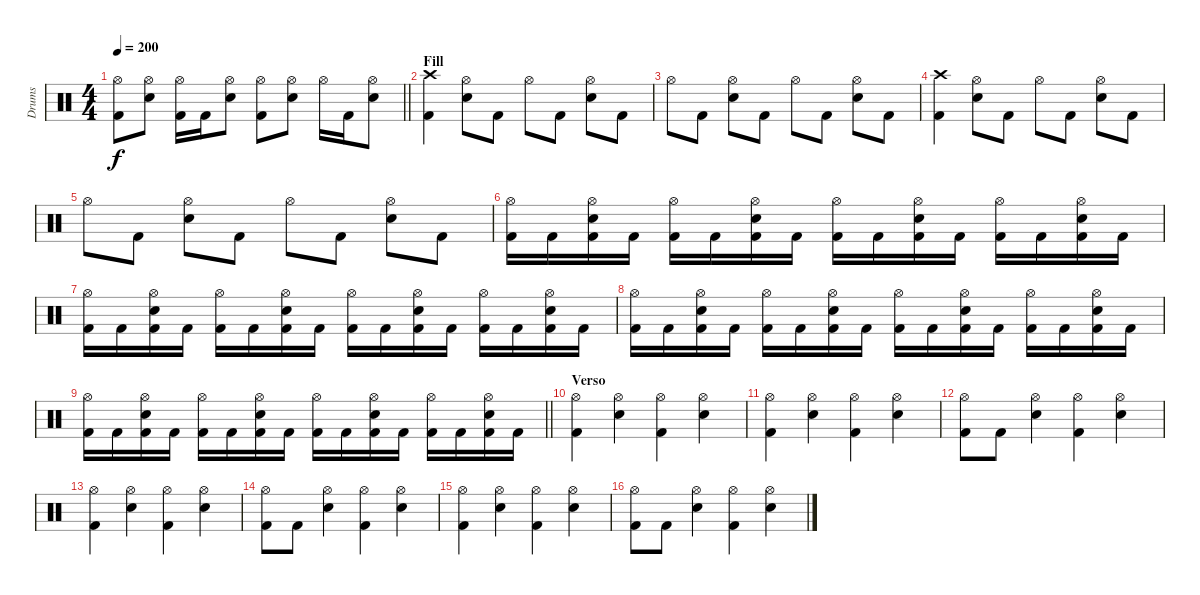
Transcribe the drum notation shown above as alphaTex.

\track ("Drums" "Drums") {instrument percussion}
\staff {score}
\articulation defaults
\ts (4 4)
\tempo 200
\clef neutral
\barLineRight lightlight
\ks c
("Hi-Hat (open)" "Kick (hit) 2").8{dy f} ("Hi-Hat (open)" "Electric Snare (hit)").8 ("Hi-Hat (open)" "Kick (hit) 2").16 "Kick (hit) 2".16 ("Hi-Hat (open)" "Electric Snare (hit)").8 ("Hi-Hat (open)" "Kick (hit) 2").8 ("Hi-Hat (open)" "Electric Snare (hit)").8 "Hi-Hat (open)".16 "Kick (hit) 2".16 ("Hi-Hat (open)" "Electric Snare (hit)").8 |
\section ("" "Fill")
("Crash high (hit)" "Kick (hit) 2").4 ("Hi-Hat (open)" "Electric Snare (hit)").8 "Kick (hit) 2".8 "Hi-Hat (open)".8 "Kick (hit) 2".8 ("Hi-Hat (open)" "Electric Snare (hit)").8 "Kick (hit) 2".8 |
"Hi-Hat (open)".8 "Kick (hit) 2".8 ("Hi-Hat (open)" "Electric Snare (hit)").8 "Kick (hit) 2".8 "Hi-Hat (open)".8 "Kick (hit) 2".8 ("Hi-Hat (open)" "Electric Snare (hit)").8 "Kick (hit) 2".8 |
("Crash high (hit)" "Kick (hit) 2").4 ("Hi-Hat (open)" "Electric Snare (hit)").8 "Kick (hit) 2".8 "Hi-Hat (open)".8 "Kick (hit) 2".8 ("Hi-Hat (open)" "Electric Snare (hit)").8 "Kick (hit) 2".8 |
"Hi-Hat (open)".8 "Kick (hit) 2".8 ("Hi-Hat (open)" "Electric Snare (hit)").8 "Kick (hit) 2".8 "Hi-Hat (open)".8 "Kick (hit) 2".8 ("Hi-Hat (open)" "Electric Snare (hit)").8 "Kick (hit) 2".8 |
("Hi-Hat (open)" "Kick (hit) 2").16 "Kick (hit) 2".16 ("Hi-Hat (open)" "Electric Snare (hit)" "Kick (hit) 2").16 "Kick (hit) 2".16 ("Hi-Hat (open)" "Kick (hit) 2").16 "Kick (hit) 2".16 ("Hi-Hat (open)" "Electric Snare (hit)" "Kick (hit) 2").16 "Kick (hit) 2".16 ("Hi-Hat (open)" "Kick (hit) 2").16 "Kick (hit) 2".16 ("Hi-Hat (open)" "Electric Snare (hit)" "Kick (hit) 2").16 "Kick (hit) 2".16 ("Hi-Hat (open)" "Kick (hit) 2").16 "Kick (hit) 2".16 ("Hi-Hat (open)" "Electric Snare (hit)" "Kick (hit) 2").16 "Kick (hit) 2".16 |
("Hi-Hat (open)" "Kick (hit) 2").16 "Kick (hit) 2".16 ("Hi-Hat (open)" "Electric Snare (hit)" "Kick (hit) 2").16 "Kick (hit) 2".16 ("Hi-Hat (open)" "Kick (hit) 2").16 "Kick (hit) 2".16 ("Hi-Hat (open)" "Electric Snare (hit)" "Kick (hit) 2").16 "Kick (hit) 2".16 ("Hi-Hat (open)" "Kick (hit) 2").16 "Kick (hit) 2".16 ("Hi-Hat (open)" "Electric Snare (hit)" "Kick (hit) 2").16 "Kick (hit) 2".16 ("Hi-Hat (open)" "Kick (hit) 2").16 "Kick (hit) 2".16 ("Hi-Hat (open)" "Electric Snare (hit)" "Kick (hit) 2").16 "Kick (hit) 2".16 |
("Hi-Hat (open)" "Kick (hit) 2").16 "Kick (hit) 2".16 ("Hi-Hat (open)" "Electric Snare (hit)" "Kick (hit) 2").16 "Kick (hit) 2".16 ("Hi-Hat (open)" "Kick (hit) 2").16 "Kick (hit) 2".16 ("Hi-Hat (open)" "Electric Snare (hit)" "Kick (hit) 2").16 "Kick (hit) 2".16 ("Hi-Hat (open)" "Kick (hit) 2").16 "Kick (hit) 2".16 ("Hi-Hat (open)" "Electric Snare (hit)" "Kick (hit) 2").16 "Kick (hit) 2".16 ("Hi-Hat (open)" "Kick (hit) 2").16 "Kick (hit) 2".16 ("Hi-Hat (open)" "Electric Snare (hit)" "Kick (hit) 2").16 "Kick (hit) 2".16 |
\barLineRight lightlight
("Hi-Hat (open)" "Kick (hit) 2").16 "Kick (hit) 2".16 ("Hi-Hat (open)" "Electric Snare (hit)" "Kick (hit) 2").16 "Kick (hit) 2".16 ("Hi-Hat (open)" "Kick (hit) 2").16 "Kick (hit) 2".16 ("Hi-Hat (open)" "Electric Snare (hit)" "Kick (hit) 2").16 "Kick (hit) 2".16 ("Hi-Hat (open)" "Kick (hit) 2").16 "Kick (hit) 2".16 ("Hi-Hat (open)" "Electric Snare (hit)" "Kick (hit) 2").16 "Kick (hit) 2".16 ("Hi-Hat (open)" "Kick (hit) 2").16 "Kick (hit) 2".16 ("Hi-Hat (open)" "Electric Snare (hit)" "Kick (hit) 2").16 "Kick (hit) 2".16 |
\section ("" "Verso")
("Hi-Hat (open)" "Kick (hit) 2").4 ("Hi-Hat (open)" "Electric Snare (hit)").4 ("Hi-Hat (open)" "Kick (hit) 2").4 ("Hi-Hat (open)" "Electric Snare (hit)").4 |
("Hi-Hat (open)" "Kick (hit) 2").4 ("Hi-Hat (open)" "Electric Snare (hit)").4 ("Hi-Hat (open)" "Kick (hit) 2").4 ("Hi-Hat (open)" "Electric Snare (hit)").4 |
("Hi-Hat (open)" "Kick (hit) 2").8 "Kick (hit) 2".8 ("Hi-Hat (open)" "Electric Snare (hit)").4 ("Hi-Hat (open)" "Kick (hit) 2").4 ("Hi-Hat (open)" "Electric Snare (hit)").4 |
("Hi-Hat (open)" "Kick (hit) 2").4 ("Hi-Hat (open)" "Electric Snare (hit)").4 ("Hi-Hat (open)" "Kick (hit) 2").4 ("Hi-Hat (open)" "Electric Snare (hit)").4 |
("Hi-Hat (open)" "Kick (hit) 2").8 "Kick (hit) 2".8 ("Hi-Hat (open)" "Electric Snare (hit)").4 ("Hi-Hat (open)" "Kick (hit) 2").4 ("Hi-Hat (open)" "Electric Snare (hit)").4 |
("Hi-Hat (open)" "Kick (hit) 2").4 ("Hi-Hat (open)" "Electric Snare (hit)").4 ("Hi-Hat (open)" "Kick (hit) 2").4 ("Hi-Hat (open)" "Electric Snare (hit)").4 |
("Hi-Hat (open)" "Kick (hit) 2").8 "Kick (hit) 2".8 ("Hi-Hat (open)" "Electric Snare (hit)").4 ("Hi-Hat (open)" "Kick (hit) 2").4 ("Hi-Hat (open)" "Electric Snare (hit)").4
